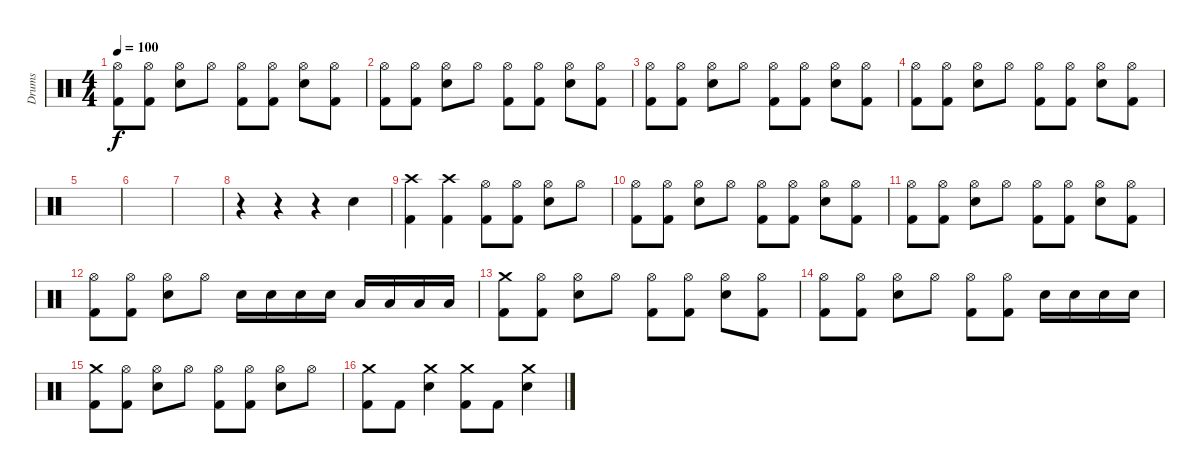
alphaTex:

\track ("Drums" "Drums") {instrument percussion}
\staff {score}
\articulation defaults
\ts (4 4)
\tempo 100
\clef neutral
\ks c
("Hi-Hat (open)" "Kick (hit) 2").8{dy f} ("Hi-Hat (open)" "Kick (hit) 2").8 ("Hi-Hat (open)" "Snare (hit) 2").8 "Hi-Hat (open)".8 ("Hi-Hat (open)" "Kick (hit) 2").8 ("Hi-Hat (open)" "Kick (hit) 2").8 ("Hi-Hat (open)" "Snare (hit) 2").8 ("Hi-Hat (open)" "Kick (hit) 2").8 |
("Hi-Hat (open)" "Kick (hit) 2").8 ("Hi-Hat (open)" "Kick (hit) 2").8 ("Hi-Hat (open)" "Snare (hit) 2").8 "Hi-Hat (open)".8 ("Hi-Hat (open)" "Kick (hit) 2").8 ("Hi-Hat (open)" "Kick (hit) 2").8 ("Hi-Hat (open)" "Snare (hit) 2").8 ("Hi-Hat (open)" "Kick (hit) 2").8 |
("Hi-Hat (open)" "Kick (hit) 2").8 ("Hi-Hat (open)" "Kick (hit) 2").8 ("Hi-Hat (open)" "Snare (hit) 2").8 "Hi-Hat (open)".8 ("Hi-Hat (open)" "Kick (hit) 2").8 ("Hi-Hat (open)" "Kick (hit) 2").8 ("Hi-Hat (open)" "Snare (hit) 2").8 ("Hi-Hat (open)" "Kick (hit) 2").8 |
("Hi-Hat (open)" "Kick (hit) 2").8 ("Hi-Hat (open)" "Kick (hit) 2").8 ("Hi-Hat (open)" "Snare (hit) 2").8 "Hi-Hat (open)".8 ("Hi-Hat (open)" "Kick (hit) 2").8 ("Hi-Hat (open)" "Kick (hit) 2").8 ("Hi-Hat (open)" "Snare (hit) 2").8 ("Hi-Hat (open)" "Kick (hit) 2").8 |
|
|
|
r.4 r.4 r.4 "Snare (hit) 2".4 |
("Crash high (hit)" "Kick (hit) 2").4 ("Crash high (hit)" "Kick (hit) 2").4 ("Hi-Hat (open)" "Kick (hit) 2").8 ("Hi-Hat (open)" "Kick (hit) 2").8 ("Hi-Hat (open)" "Snare (hit) 2").8 "Hi-Hat (open)".8 |
("Hi-Hat (open)" "Kick (hit) 2").8 ("Hi-Hat (open)" "Kick (hit) 2").8 ("Hi-Hat (open)" "Snare (hit) 2").8 "Hi-Hat (open)".8 ("Hi-Hat (open)" "Kick (hit) 2").8 ("Hi-Hat (open)" "Kick (hit) 2").8 ("Hi-Hat (open)" "Snare (hit) 2").8 ("Hi-Hat (open)" "Kick (hit) 2").8 |
("Hi-Hat (open)" "Kick (hit) 2").8 ("Hi-Hat (open)" "Kick (hit) 2").8 ("Hi-Hat (open)" "Snare (hit) 2").8 "Hi-Hat (open)".8 ("Hi-Hat (open)" "Kick (hit) 2").8 ("Hi-Hat (open)" "Kick (hit) 2").8 ("Hi-Hat (open)" "Snare (hit) 2").8 ("Hi-Hat (open)" "Kick (hit) 2").8 |
("Hi-Hat (open)" "Kick (hit) 2").8 ("Hi-Hat (open)" "Kick (hit) 2").8 ("Hi-Hat (open)" "Snare (hit) 2").8 "Hi-Hat (open)".8 "Snare (hit) 2".16 "Snare (hit) 2".16 "Snare (hit) 2".16 "Snare (hit) 2".16 "Low Tom (hit)".16 "Low Tom (hit)".16 "Low Tom (hit)".16 "Low Tom (hit)".16 |
("Crash medium (hit)" "Kick (hit) 2").8 ("Hi-Hat (open)" "Kick (hit) 2").8 ("Hi-Hat (open)" "Snare (hit) 2").8 "Hi-Hat (open)".8 ("Hi-Hat (open)" "Kick (hit) 2").8 ("Hi-Hat (open)" "Kick (hit) 2").8 ("Hi-Hat (open)" "Snare (hit) 2").8 ("Hi-Hat (open)" "Kick (hit) 2").8 |
("Hi-Hat (open)" "Kick (hit) 2").8 ("Hi-Hat (open)" "Kick (hit) 2").8 ("Hi-Hat (open)" "Snare (hit) 2").8 "Hi-Hat (open)".8 ("Hi-Hat (open)" "Kick (hit) 2").8 ("Hi-Hat (open)" "Kick (hit) 2").8 "Snare (hit) 2".16 "Snare (hit) 2".16 "Snare (hit) 2".16 "Snare (hit) 2".16 |
("Crash medium (hit)" "Kick (hit) 2").8 ("Hi-Hat (open)" "Kick (hit) 2").8 ("Hi-Hat (open)" "Snare (hit) 2").8 "Hi-Hat (open)".8 ("Hi-Hat (open)" "Kick (hit) 2").8 ("Hi-Hat (open)" "Kick (hit) 2").8 ("Hi-Hat (open)" "Snare (hit) 2").8 "Hi-Hat (open)".8 |
("Crash medium (hit)" "Kick (hit) 2").8 "Kick (hit) 2".8 ("Crash medium (hit)" "Snare (hit) 2").4 ("Crash medium (hit)" "Kick (hit) 2").8 "Kick (hit) 2".8 ("Crash medium (hit)" "Snare (hit) 2").4
